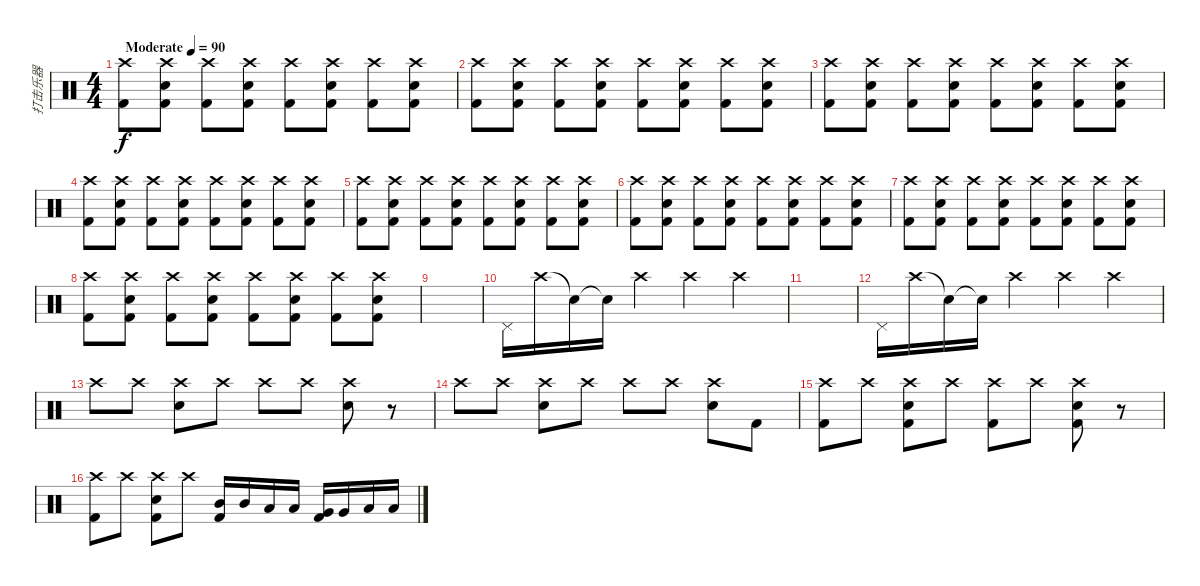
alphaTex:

\track ("打击乐器" "打击乐器") {instrument percussion}
\staff {score}
\articulation defaults
\ts (4 4)
\tempo (90 "Moderate")
\clef neutral
\ks c
("Crash high (hit)" "Kick (hit) 2").8{dy f} ("Crash high (hit)" "Electric Snare (hit)" "Kick (hit) 2").8 ("Crash high (hit)" "Kick (hit) 2").8 ("Crash high (hit)" "Electric Snare (hit)" "Kick (hit) 2").8 ("Crash high (hit)" "Kick (hit) 2").8 ("Crash high (hit)" "Electric Snare (hit)" "Kick (hit) 2").8 ("Crash high (hit)" "Kick (hit) 2").8 ("Crash high (hit)" "Electric Snare (hit)" "Kick (hit) 2").8 |
("Crash high (hit)" "Kick (hit) 2").8 ("Crash high (hit)" "Electric Snare (hit)" "Kick (hit) 2").8 ("Crash high (hit)" "Kick (hit) 2").8 ("Crash high (hit)" "Electric Snare (hit)" "Kick (hit) 2").8 ("Crash high (hit)" "Kick (hit) 2").8 ("Crash high (hit)" "Electric Snare (hit)" "Kick (hit) 2").8 ("Crash high (hit)" "Kick (hit) 2").8 ("Crash high (hit)" "Electric Snare (hit)" "Kick (hit) 2").8 |
("Crash high (hit)" "Kick (hit) 2").8 ("Crash high (hit)" "Electric Snare (hit)" "Kick (hit) 2").8 ("Crash high (hit)" "Kick (hit) 2").8 ("Crash high (hit)" "Electric Snare (hit)" "Kick (hit) 2").8 ("Crash high (hit)" "Kick (hit) 2").8 ("Crash high (hit)" "Electric Snare (hit)" "Kick (hit) 2").8 ("Crash high (hit)" "Kick (hit) 2").8 ("Crash high (hit)" "Electric Snare (hit)" "Kick (hit) 2").8 |
("Crash high (hit)" "Kick (hit) 2").8 ("Crash high (hit)" "Electric Snare (hit)" "Kick (hit) 2").8 ("Crash high (hit)" "Kick (hit) 2").8 ("Crash high (hit)" "Electric Snare (hit)" "Kick (hit) 2").8 ("Crash high (hit)" "Kick (hit) 2").8 ("Crash high (hit)" "Electric Snare (hit)" "Kick (hit) 2").8 ("Crash high (hit)" "Kick (hit) 2").8 ("Crash high (hit)" "Electric Snare (hit)" "Kick (hit) 2").8 |
("Crash high (hit)" "Kick (hit) 2").8 ("Crash high (hit)" "Electric Snare (hit)" "Kick (hit) 2").8 ("Crash high (hit)" "Kick (hit) 2").8 ("Crash high (hit)" "Electric Snare (hit)" "Kick (hit) 2").8 ("Crash high (hit)" "Kick (hit) 2").8 ("Crash high (hit)" "Electric Snare (hit)" "Kick (hit) 2").8 ("Crash high (hit)" "Kick (hit) 2").8 ("Crash high (hit)" "Electric Snare (hit)" "Kick (hit) 2").8 |
("Crash high (hit)" "Kick (hit) 2").8 ("Crash high (hit)" "Electric Snare (hit)" "Kick (hit) 2").8 ("Crash high (hit)" "Kick (hit) 2").8 ("Crash high (hit)" "Electric Snare (hit)" "Kick (hit) 2").8 ("Crash high (hit)" "Kick (hit) 2").8 ("Crash high (hit)" "Electric Snare (hit)" "Kick (hit) 2").8 ("Crash high (hit)" "Kick (hit) 2").8 ("Crash high (hit)" "Electric Snare (hit)" "Kick (hit) 2").8 |
("Crash high (hit)" "Kick (hit) 2").8 ("Crash high (hit)" "Electric Snare (hit)" "Kick (hit) 2").8 ("Crash high (hit)" "Kick (hit) 2").8 ("Crash high (hit)" "Electric Snare (hit)" "Kick (hit) 2").8 ("Crash high (hit)" "Kick (hit) 2").8 ("Crash high (hit)" "Electric Snare (hit)" "Kick (hit) 2").8 ("Crash high (hit)" "Kick (hit) 2").8 ("Crash high (hit)" "Electric Snare (hit)" "Kick (hit) 2").8 |
("Crash high (hit)" "Kick (hit) 2").8 ("Crash high (hit)" "Electric Snare (hit)" "Kick (hit) 2").8 ("Crash high (hit)" "Kick (hit) 2").8 ("Crash high (hit)" "Electric Snare (hit)" "Kick (hit) 2").8 ("Crash high (hit)" "Kick (hit) 2").8 ("Crash high (hit)" "Electric Snare (hit)" "Kick (hit) 2").8 ("Crash high (hit)" "Kick (hit) 2").8 ("Crash high (hit)" "Electric Snare (hit)" "Kick (hit) 2").8 |
|
"Pedal Hi-Hat (hit)".16 "Crash high (hit)".16 "Snare (hit)"{t}.16 "Snare (hit)"{t}.16 "Crash high (hit)".4 "Crash high (hit)".4 "Crash high (hit)".4 |
|
"Pedal Hi-Hat (hit)".16 "Crash high (hit)".16 "Snare (hit)"{t}.16 "Snare (hit)"{t}.16 "Crash high (hit)".4 "Crash high (hit)".4 "Crash high (hit)".4 |
"Crash high (hit)".8 "Crash high (hit)".8 ("Crash high (hit)" "Electric Snare (hit)").8 "Crash high (hit)".8 "Crash high (hit)".8 "Crash high (hit)".8 ("Crash high (hit)" "Electric Snare (hit)").8 r.8 |
"Crash high (hit)".8 "Crash high (hit)".8 ("Crash high (hit)" "Electric Snare (hit)").8 "Crash high (hit)".8 "Crash high (hit)".8 "Crash high (hit)".8 ("Crash high (hit)" "Electric Snare (hit)").8 "Kick (hit) 2".8 |
("Crash high (hit)" "Kick (hit) 2").8 "Crash high (hit)".8 ("Crash high (hit)" "Electric Snare (hit)" "Kick (hit) 2").8 "Crash high (hit)".8 ("Crash high (hit)" "Kick (hit) 2").8 "Crash high (hit)".8 ("Crash high (hit)" "Electric Snare (hit)" "Kick (hit) 2").8 r.8 |
("Crash high (hit)" "Kick (hit) 2").8 "Crash high (hit)".8 ("Crash high (hit)" "Electric Snare (hit)" "Kick (hit) 2").8 "Crash high (hit)".8 ("Mid Tom (hit)" "Kick (hit) 2").16 "Mid Tom (hit)".16 "Low Tom (hit)".16 "Low Tom (hit)".16 ("Very Low Tom (hit)" "Kick (hit) 2").16 "Very Low Tom (hit)".16 "Low Floor Tom (hit)".16 "Low Floor Tom (hit)".16
